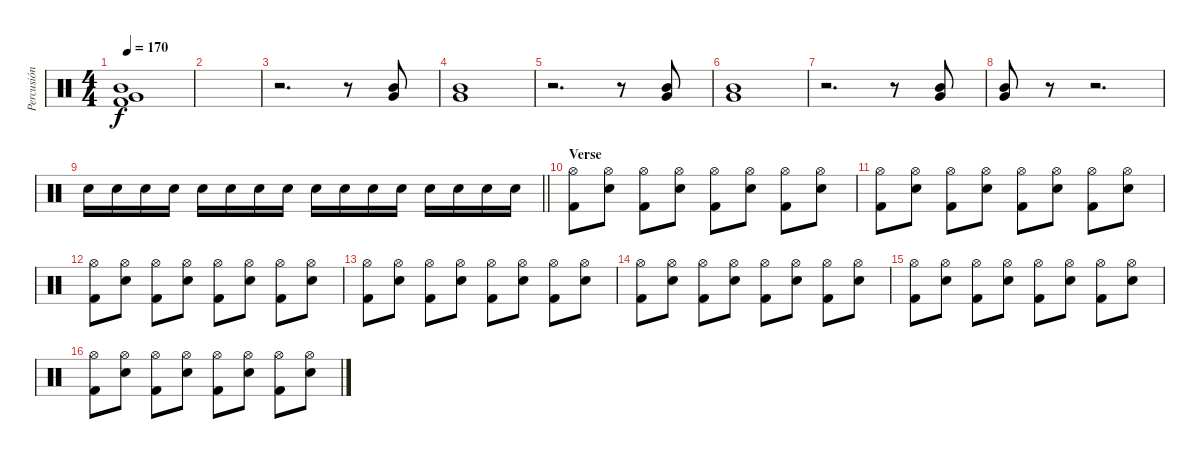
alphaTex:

\track ("Percusión" "Percusión") {instrument percussion}
\staff {score}
\articulation defaults
\ts (4 4)
\tempo 170
\clef neutral
\ks c
("Mid Tom (hit)" "Very Low Tom (hit)" "Kick (hit) 2").1{dy f} |
|
r.2{d} r.8 ("Mid Tom (hit)" "Very Low Tom (hit)").8 |
("Mid Tom (hit)" "Very Low Tom (hit)").1 |
r.2{d} r.8 ("Mid Tom (hit)" "Very Low Tom (hit)").8 |
("Mid Tom (hit)" "Very Low Tom (hit)").1 |
r.2{d} r.8 ("Mid Tom (hit)" "Very Low Tom (hit)").8 |
("Mid Tom (hit)" "Very Low Tom (hit)").8 r.8 r.2{d} |
\barLineRight lightlight "Snare (hit) 2".16 "Snare (hit) 2".16 "Snare (hit) 2".16 "Snare (hit) 2".16 "Snare (hit) 2".16 "Snare (hit) 2".16 "Snare (hit) 2".16 "Snare (hit) 2".16 "Snare (hit) 2".16 "Snare (hit) 2".16 "Snare (hit) 2".16 "Snare (hit) 2".16 "Snare (hit) 2".16 "Snare (hit) 2".16 "Snare (hit) 2".16 "Snare (hit) 2".16
|
\section ("" "Verse")
("Hi-Hat (open)" "Kick (hit) 2").8 ("Hi-Hat (open)" "Snare (hit) 2").8 ("Hi-Hat (open)" "Kick (hit) 2").8 ("Hi-Hat (open)" "Snare (hit) 2").8 ("Hi-Hat (open)" "Kick (hit) 2").8 ("Hi-Hat (open)" "Snare (hit) 2").8 ("Hi-Hat (open)" "Kick (hit) 2").8 ("Hi-Hat (open)" "Snare (hit) 2").8 |
("Hi-Hat (open)" "Kick (hit) 2").8 ("Hi-Hat (open)" "Snare (hit) 2").8 ("Hi-Hat (open)" "Kick (hit) 2").8 ("Hi-Hat (open)" "Snare (hit) 2").8 ("Hi-Hat (open)" "Kick (hit) 2").8 ("Hi-Hat (open)" "Snare (hit) 2").8 ("Hi-Hat (open)" "Kick (hit) 2").8 ("Hi-Hat (open)" "Snare (hit) 2").8 |
("Hi-Hat (open)" "Kick (hit) 2").8 ("Hi-Hat (open)" "Snare (hit) 2").8 ("Hi-Hat (open)" "Kick (hit) 2").8 ("Hi-Hat (open)" "Snare (hit) 2").8 ("Hi-Hat (open)" "Kick (hit) 2").8 ("Hi-Hat (open)" "Snare (hit) 2").8 ("Hi-Hat (open)" "Kick (hit) 2").8 ("Hi-Hat (open)" "Snare (hit) 2").8 |
("Hi-Hat (open)" "Kick (hit) 2").8 ("Hi-Hat (open)" "Snare (hit) 2").8 ("Hi-Hat (open)" "Kick (hit) 2").8 ("Hi-Hat (open)" "Snare (hit) 2").8 ("Hi-Hat (open)" "Kick (hit) 2").8 ("Hi-Hat (open)" "Snare (hit) 2").8 ("Hi-Hat (open)" "Kick (hit) 2").8 ("Hi-Hat (open)" "Snare (hit) 2").8 |
("Hi-Hat (open)" "Kick (hit) 2").8 ("Hi-Hat (open)" "Snare (hit) 2").8 ("Hi-Hat (open)" "Kick (hit) 2").8 ("Hi-Hat (open)" "Snare (hit) 2").8 ("Hi-Hat (open)" "Kick (hit) 2").8 ("Hi-Hat (open)" "Snare (hit) 2").8 ("Hi-Hat (open)" "Kick (hit) 2").8 ("Hi-Hat (open)" "Snare (hit) 2").8 |
("Hi-Hat (open)" "Kick (hit) 2").8 ("Hi-Hat (open)" "Snare (hit) 2").8 ("Hi-Hat (open)" "Kick (hit) 2").8 ("Hi-Hat (open)" "Snare (hit) 2").8 ("Hi-Hat (open)" "Kick (hit) 2").8 ("Hi-Hat (open)" "Snare (hit) 2").8 ("Hi-Hat (open)" "Kick (hit) 2").8 ("Hi-Hat (open)" "Snare (hit) 2").8 |
("Hi-Hat (open)" "Kick (hit) 2").8 ("Hi-Hat (open)" "Snare (hit) 2").8 ("Hi-Hat (open)" "Kick (hit) 2").8 ("Hi-Hat (open)" "Snare (hit) 2").8 ("Hi-Hat (open)" "Kick (hit) 2").8 ("Hi-Hat (open)" "Snare (hit) 2").8 ("Hi-Hat (open)" "Kick (hit) 2").8 ("Hi-Hat (open)" "Snare (hit) 2").8
